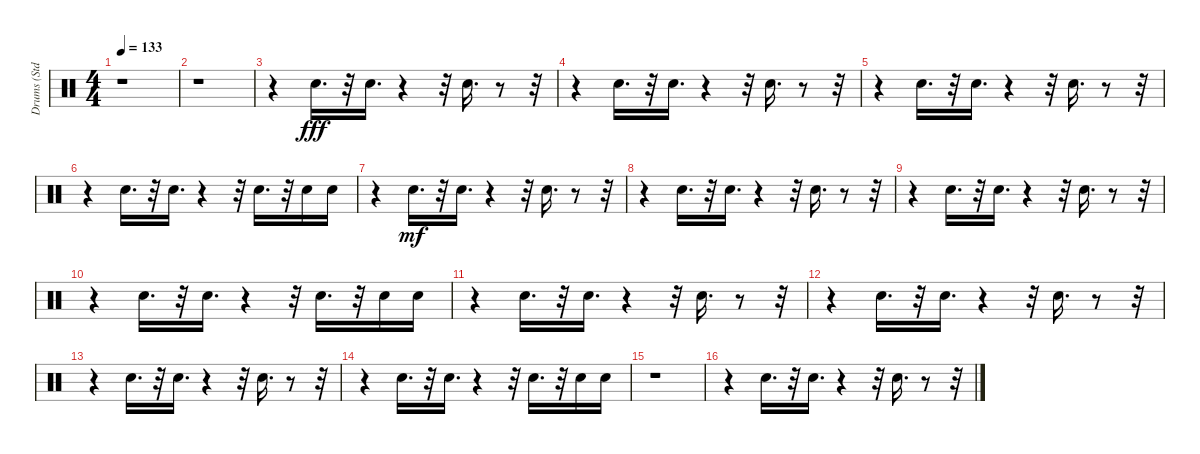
\track ("Drums (Std.)" "Drums (Std") {instrument percussion}
\staff {score}
\articulation defaults
\ts (4 4)
\tempo 133
\clef neutral
\ks c
r.1{dy fff} |
r.1 |
r.4 "Snare (hit) 2".16{d} r.32 "Snare (hit) 2".16{d} r.4 r.32 "Snare (hit) 2".16{d} r.8 r.32 |
r.4 "Snare (hit) 2".16{d} r.32 "Snare (hit) 2".16{d} r.4 r.32 "Snare (hit) 2".16{d} r.8 r.32 |
r.4 "Snare (hit) 2".16{d} r.32 "Snare (hit) 2".16{d} r.4 r.32 "Snare (hit) 2".16{d} r.8 r.32 |
r.4 "Snare (hit) 2".16{d} r.32 "Snare (hit) 2".16{d} r.4 r.32 "Snare (hit) 2".16{d} r.32 "Snare (hit) 2".16 "Snare (hit) 2".16 |
r.4 "Snare (hit) 2".16{d dy mf} r.32 "Snare (hit) 2".16{d} r.4 r.32 "Snare (hit) 2".16{d} r.8 r.32 |
r.4 "Snare (hit) 2".16{d} r.32 "Snare (hit) 2".16{d} r.4 r.32 "Snare (hit) 2".16{d} r.8 r.32 |
r.4 "Snare (hit) 2".16{d} r.32 "Snare (hit) 2".16{d} r.4 r.32 "Snare (hit) 2".16{d} r.8 r.32 |
r.4 "Snare (hit) 2".16{d} r.32 "Snare (hit) 2".16{d} r.4 r.32 "Snare (hit) 2".16{d} r.32 "Snare (hit) 2".16 "Snare (hit) 2".16 |
r.4 "Snare (hit) 2".16{d} r.32 "Snare (hit) 2".16{d} r.4 r.32 "Snare (hit) 2".16{d} r.8 r.32 |
r.4 "Snare (hit) 2".16{d} r.32 "Snare (hit) 2".16{d} r.4 r.32 "Snare (hit) 2".16{d} r.8 r.32 |
r.4 "Snare (hit) 2".16{d} r.32 "Snare (hit) 2".16{d} r.4 r.32 "Snare (hit) 2".16{d} r.8 r.32 |
r.4 "Snare (hit) 2".16{d} r.32 "Snare (hit) 2".16{d} r.4 r.32 "Snare (hit) 2".16{d} r.32 "Snare (hit) 2".16 "Snare (hit) 2".16 |
r.1 |
r.4 "Snare (hit) 2".16{d} r.32 "Snare (hit) 2".16{d} r.4 r.32 "Snare (hit) 2".16{d} r.8 r.32
